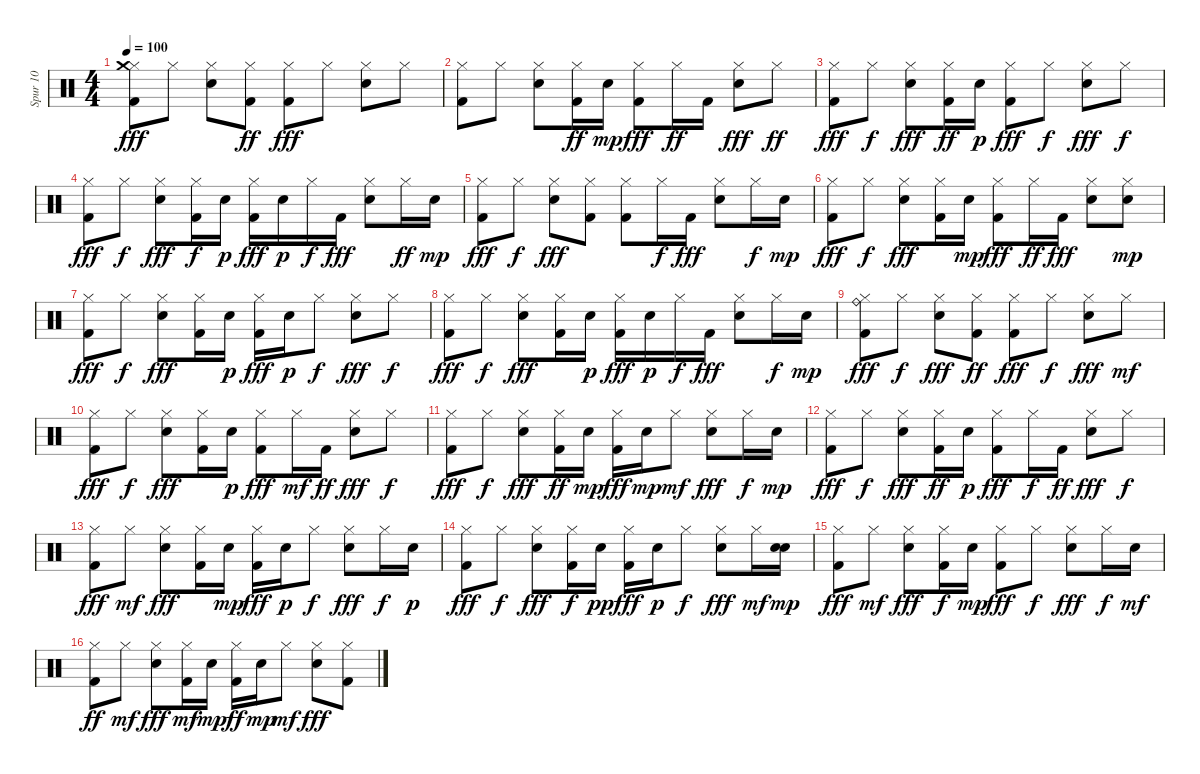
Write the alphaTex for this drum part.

\track ("Spur 10" "Spur 10") {instrument percussion}
\staff {score}
\articulation defaults
\ts (4 4)
\tempo 100
\clef neutral
\ks c
("Hi-Hat (closed)" "Crash medium (hit)" "Kick (hit) 2").8{dy fff} "Hi-Hat (closed)".8 ("Hi-Hat (closed)" "Metronome (bell)").8 ("Hi-Hat (closed)" "Kick (hit) 2").8{dy ff} ("Hi-Hat (closed)" "Kick (hit) 2").8{dy fff} "Hi-Hat (closed)".8 ("Hi-Hat (closed)" "Metronome (bell)").8 "Hi-Hat (closed)".8 |
("Hi-Hat (closed)" "Kick (hit) 2").8 "Hi-Hat (closed)".8 ("Hi-Hat (closed)" "Metronome (bell)").8 ("Hi-Hat (closed)" "Kick (hit) 2").16{dy ff} "Metronome (bell)".16{dy mp} ("Hi-Hat (closed)" "Kick (hit) 2").8{dy fff} "Hi-Hat (closed)".16{dy ff} "Kick (hit) 2".16 ("Hi-Hat (closed)" "Metronome (bell)").8{dy fff} "Hi-Hat (closed)".8{dy ff} |
("Hi-Hat (closed)" "Kick (hit) 2").8{dy fff} "Hi-Hat (closed)".8{dy f} ("Hi-Hat (closed)" "Metronome (bell)").8{dy fff} ("Hi-Hat (closed)" "Kick (hit) 2").16{dy ff} "Metronome (bell)".16{dy p} ("Hi-Hat (closed)" "Kick (hit) 2").8{dy fff} "Hi-Hat (closed)".8{dy f} ("Hi-Hat (closed)" "Metronome (bell)").8{dy fff} "Hi-Hat (closed)".8{dy f} |
("Hi-Hat (closed)" "Kick (hit) 2").8{dy fff} "Hi-Hat (closed)".8{dy f} ("Hi-Hat (closed)" "Metronome (bell)").8{dy fff} ("Hi-Hat (closed)" "Kick (hit) 2").16{dy f} "Metronome (bell)".16{dy p} ("Hi-Hat (closed)" "Kick (hit) 2").16{dy fff} "Metronome (bell)".16{dy p} "Hi-Hat (closed)".16{dy f} "Kick (hit) 2".16{dy fff} ("Hi-Hat (closed)" "Metronome (bell)").8 "Hi-Hat (closed)".16{dy ff} "Metronome (bell)".16{dy mp} |
("Hi-Hat (closed)" "Kick (hit) 2").8{dy fff} "Hi-Hat (closed)".8{dy f} ("Hi-Hat (closed)" "Metronome (bell)").8{dy fff} ("Hi-Hat (closed)" "Kick (hit) 2").8 ("Hi-Hat (closed)" "Kick (hit) 2").8 "Hi-Hat (closed)".16{dy f} "Kick (hit) 2".16{dy fff} ("Hi-Hat (closed)" "Metronome (bell)").8 "Hi-Hat (closed)".16{dy f} "Metronome (bell)".16{dy mp} |
("Hi-Hat (closed)" "Kick (hit) 2").8{dy fff} "Hi-Hat (closed)".8{dy f} ("Hi-Hat (closed)" "Metronome (bell)").8{dy fff} ("Hi-Hat (closed)" "Kick (hit) 2").16 "Metronome (bell)".16{dy mp} ("Hi-Hat (closed)" "Kick (hit) 2").8{dy fff} "Hi-Hat (closed)".16{dy ff} "Kick (hit) 2".16{dy fff} ("Hi-Hat (closed)" "Metronome (bell)").8 ("Hi-Hat (closed)" "Metronome (bell)").8{dy mp} |
("Hi-Hat (closed)" "Kick (hit) 2").8{dy fff} "Hi-Hat (closed)".8{dy f} ("Hi-Hat (closed)" "Metronome (bell)").8{dy fff} ("Hi-Hat (closed)" "Kick (hit) 2").16 "Metronome (bell)".16{dy p} ("Hi-Hat (closed)" "Kick (hit) 2").16{dy fff} "Metronome (bell)".16{dy p} "Hi-Hat (closed)".8{dy f} ("Hi-Hat (closed)" "Metronome (bell)").8{dy fff} "Hi-Hat (closed)".8{dy f} |
("Hi-Hat (closed)" "Kick (hit) 2").8{dy fff} "Hi-Hat (closed)".8{dy f} ("Hi-Hat (closed)" "Metronome (bell)").8{dy fff} ("Hi-Hat (closed)" "Kick (hit) 2").16 "Metronome (bell)".16{dy p} ("Hi-Hat (closed)" "Kick (hit) 2").16{dy fff} "Metronome (bell)".16{dy p} "Hi-Hat (closed)".16{dy f} "Kick (hit) 2".16{dy fff} ("Hi-Hat (closed)" "Metronome (bell)").8 "Hi-Hat (closed)".16{dy f} "Metronome (bell)".16{dy mp} |
("Hi-Hat (closed)" "Kick (hit) 2" "Ride (bell)").8{dy fff} "Hi-Hat (closed)".8{dy f} ("Hi-Hat (closed)" "Metronome (bell)").8{dy fff} ("Hi-Hat (closed)" "Kick (hit) 2").8{dy ff} ("Hi-Hat (closed)" "Kick (hit) 2").8{dy fff} "Hi-Hat (closed)".8{dy f} ("Hi-Hat (closed)" "Metronome (bell)").8{dy fff} "Hi-Hat (closed)".8{dy mf} |
("Hi-Hat (closed)" "Kick (hit) 2").8{dy fff} "Hi-Hat (closed)".8{dy f} ("Hi-Hat (closed)" "Metronome (bell)").8{dy fff} ("Hi-Hat (closed)" "Kick (hit) 2").16 "Metronome (bell)".16{dy p} ("Hi-Hat (closed)" "Kick (hit) 2").8{dy fff} "Hi-Hat (closed)".16{dy mf} "Kick (hit) 2".16{dy ff} ("Hi-Hat (closed)" "Metronome (bell)").8{dy fff} "Hi-Hat (closed)".8{dy f} |
("Hi-Hat (closed)" "Kick (hit) 2").8{dy fff} "Hi-Hat (closed)".8{dy f} ("Hi-Hat (closed)" "Metronome (bell)").8{dy fff} ("Hi-Hat (closed)" "Kick (hit) 2").16{dy ff} "Metronome (bell)".16{dy mp} ("Hi-Hat (closed)" "Kick (hit) 2").16{dy fff} "Metronome (bell)".16{dy mp} "Hi-Hat (closed)".8{dy mf} ("Hi-Hat (closed)" "Metronome (bell)").8{dy fff} "Hi-Hat (closed)".16{dy f} "Metronome (bell)".16{dy mp} |
("Hi-Hat (closed)" "Kick (hit) 2").8{dy fff} "Hi-Hat (closed)".8{dy f} ("Hi-Hat (closed)" "Metronome (bell)").8{dy fff} ("Hi-Hat (closed)" "Kick (hit) 2").16{dy ff} "Metronome (bell)".16{dy p} ("Hi-Hat (closed)" "Kick (hit) 2").8{dy fff} "Hi-Hat (closed)".16{dy f} "Kick (hit) 2".16{dy ff} ("Hi-Hat (closed)" "Metronome (bell)").8{dy fff} "Hi-Hat (closed)".8{dy f} |
("Hi-Hat (closed)" "Kick (hit) 2").8{dy fff} "Hi-Hat (closed)".8{dy mf} ("Hi-Hat (closed)" "Metronome (bell)").8{dy fff} ("Hi-Hat (closed)" "Kick (hit) 2").16 "Metronome (bell)".16{dy mp} ("Hi-Hat (closed)" "Kick (hit) 2").16{dy fff} "Metronome (bell)".16{dy p} "Hi-Hat (closed)".8{dy f} ("Hi-Hat (closed)" "Metronome (bell)").8{dy fff} "Hi-Hat (closed)".16{dy f} "Metronome (bell)".16{dy p} |
("Hi-Hat (closed)" "Kick (hit) 2").8{dy fff} "Hi-Hat (closed)".8{dy f} ("Hi-Hat (closed)" "Metronome (bell)").8{dy fff} ("Hi-Hat (closed)" "Kick (hit) 2").16{dy f} "Metronome (bell)".16{dy pp} ("Hi-Hat (closed)" "Kick (hit) 2").16{dy fff} "Metronome (bell)".16{dy p} "Hi-Hat (closed)".8{dy f} ("Hi-Hat (closed)" "Metronome (bell)").8{dy fff} "Hi-Hat (closed)".16{dy mf} ("Metronome (bell)" "Metronome (bell)").16{dy mp} |
("Hi-Hat (closed)" "Kick (hit) 2").8{dy fff} "Hi-Hat (closed)".8{dy mf} ("Hi-Hat (closed)" "Metronome (bell)").8{dy fff} ("Hi-Hat (closed)" "Kick (hit) 2").16{dy f} "Metronome (bell)".16{dy mp} ("Hi-Hat (closed)" "Kick (hit) 2").8{dy fff} "Hi-Hat (closed)".8{dy f} ("Hi-Hat (closed)" "Metronome (bell)").8{dy fff} "Hi-Hat (closed)".16{dy f} "Metronome (bell)".16{dy mf} |
("Hi-Hat (closed)" "Kick (hit) 2").8{dy ff} "Hi-Hat (closed)".8{dy mf} ("Hi-Hat (closed)" "Metronome (bell)").8{dy fff} ("Hi-Hat (closed)" "Kick (hit) 2").16{dy mf} "Metronome (bell)".16{dy mp} ("Hi-Hat (closed)" "Kick (hit) 2").16{dy ff} "Metronome (bell)".16{dy mp} "Hi-Hat (closed)".8{dy mf} ("Hi-Hat (closed)" "Metronome (bell)").8{dy fff} ("Hi-Hat (closed)" "Kick (hit) 2").8
